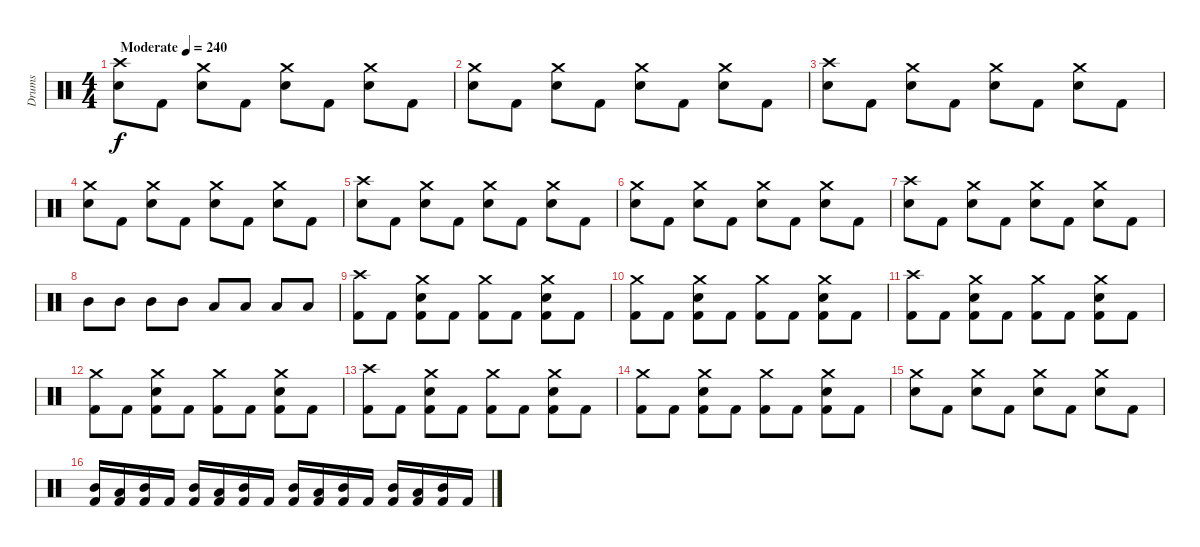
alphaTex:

\track ("Drums" "Drums") {instrument percussion}
\staff {score}
\articulation defaults
\ts (4 4)
\tempo (240 "Moderate")
\clef neutral
\ks c
("Electric Snare (hit)" "Crash high (hit)").8{dy f} "Kick (hit) 2".8 ("Electric Snare (hit)" "Crash medium (hit)").8 "Kick (hit) 2".8 ("Electric Snare (hit)" "Crash medium (hit)").8 "Kick (hit) 2".8 ("Electric Snare (hit)" "Crash medium (hit)").8 "Kick (hit) 2".8 |
("Electric Snare (hit)" "Crash medium (hit)").8 "Kick (hit) 2".8 ("Electric Snare (hit)" "Crash medium (hit)").8 "Kick (hit) 2".8 ("Electric Snare (hit)" "Crash medium (hit)").8 "Kick (hit) 2".8 ("Electric Snare (hit)" "Crash medium (hit)").8 "Kick (hit) 2".8 |
("Electric Snare (hit)" "Crash high (hit)").8 "Kick (hit) 2".8 ("Electric Snare (hit)" "Crash medium (hit)").8 "Kick (hit) 2".8 ("Electric Snare (hit)" "Crash medium (hit)").8 "Kick (hit) 2".8 ("Electric Snare (hit)" "Crash medium (hit)").8 "Kick (hit) 2".8 |
("Electric Snare (hit)" "Crash medium (hit)").8 "Kick (hit) 2".8 ("Electric Snare (hit)" "Crash medium (hit)").8 "Kick (hit) 2".8 ("Electric Snare (hit)" "Crash medium (hit)").8 "Kick (hit) 2".8 ("Electric Snare (hit)" "Crash medium (hit)").8 "Kick (hit) 2".8 |
("Electric Snare (hit)" "Crash high (hit)").8 "Kick (hit) 2".8 ("Electric Snare (hit)" "Crash medium (hit)").8 "Kick (hit) 2".8 ("Electric Snare (hit)" "Crash medium (hit)").8 "Kick (hit) 2".8 ("Electric Snare (hit)" "Crash medium (hit)").8 "Kick (hit) 2".8 |
("Electric Snare (hit)" "Crash medium (hit)").8 "Kick (hit) 2".8 ("Electric Snare (hit)" "Crash medium (hit)").8 "Kick (hit) 2".8 ("Electric Snare (hit)" "Crash medium (hit)").8 "Kick (hit) 2".8 ("Electric Snare (hit)" "Crash medium (hit)").8 "Kick (hit) 2".8 |
("Electric Snare (hit)" "Crash high (hit)").8 "Kick (hit) 2".8 ("Electric Snare (hit)" "Crash medium (hit)").8 "Kick (hit) 2".8 ("Electric Snare (hit)" "Crash medium (hit)").8 "Kick (hit) 2".8 ("Electric Snare (hit)" "Crash medium (hit)").8 "Kick (hit) 2".8 |
"Mid Tom (hit)".8 "Mid Tom (hit)".8 "Mid Tom (hit)".8 "Mid Tom (hit)".8 "Low Tom (hit)".8 "Low Tom (hit)".8 "Low Tom (hit)".8 "Low Tom (hit)".8 |
("Kick (hit) 2" "Crash high (hit)").8 "Kick (hit) 2".8 ("Kick (hit) 2" "Electric Snare (hit)" "Crash medium (hit)").8 "Kick (hit) 2".8 ("Kick (hit) 2" "Crash medium (hit)").8 "Kick (hit) 2".8 ("Kick (hit) 2" "Electric Snare (hit)" "Crash medium (hit)").8 "Kick (hit) 2".8 |
("Kick (hit) 2" "Crash medium (hit)").8 "Kick (hit) 2".8 ("Kick (hit) 2" "Electric Snare (hit)" "Crash medium (hit)").8 "Kick (hit) 2".8 ("Kick (hit) 2" "Crash medium (hit)").8 "Kick (hit) 2".8 ("Kick (hit) 2" "Electric Snare (hit)" "Crash medium (hit)").8 "Kick (hit) 2".8 |
("Kick (hit) 2" "Crash high (hit)").8 "Kick (hit) 2".8 ("Kick (hit) 2" "Electric Snare (hit)" "Crash medium (hit)").8 "Kick (hit) 2".8 ("Kick (hit) 2" "Crash medium (hit)").8 "Kick (hit) 2".8 ("Kick (hit) 2" "Electric Snare (hit)" "Crash medium (hit)").8 "Kick (hit) 2".8 |
("Kick (hit) 2" "Crash medium (hit)").8 "Kick (hit) 2".8 ("Kick (hit) 2" "Electric Snare (hit)" "Crash medium (hit)").8 "Kick (hit) 2".8 ("Kick (hit) 2" "Crash medium (hit)").8 "Kick (hit) 2".8 ("Kick (hit) 2" "Electric Snare (hit)" "Crash medium (hit)").8 "Kick (hit) 2".8 |
("Kick (hit) 2" "Crash high (hit)").8 "Kick (hit) 2".8 ("Kick (hit) 2" "Electric Snare (hit)" "Crash medium (hit)").8 "Kick (hit) 2".8 ("Kick (hit) 2" "Crash medium (hit)").8 "Kick (hit) 2".8 ("Kick (hit) 2" "Electric Snare (hit)" "Crash medium (hit)").8 "Kick (hit) 2".8 |
("Kick (hit) 2" "Crash medium (hit)").8 "Kick (hit) 2".8 ("Kick (hit) 2" "Electric Snare (hit)" "Crash medium (hit)").8 "Kick (hit) 2".8 ("Kick (hit) 2" "Crash medium (hit)").8 "Kick (hit) 2".8 ("Kick (hit) 2" "Electric Snare (hit)" "Crash medium (hit)").8 "Kick (hit) 2".8 |
("Electric Snare (hit)" "Crash medium (hit)").8 "Kick (hit) 2".8 ("Electric Snare (hit)" "Crash medium (hit)").8 "Kick (hit) 2".8 ("Electric Snare (hit)" "Crash medium (hit)").8 "Kick (hit) 2".8 ("Electric Snare (hit)" "Crash medium (hit)").8 "Kick (hit) 2".8 |
("Kick (hit) 2" "Mid Tom (hit)").16 ("Kick (hit) 2" "Low Tom (hit)").16 ("Kick (hit) 2" "Mid Tom (hit)").16 "Kick (hit) 2".16 ("Kick (hit) 2" "Mid Tom (hit)").16 ("Kick (hit) 2" "Low Tom (hit)").16 ("Kick (hit) 2" "Mid Tom (hit)").16 "Kick (hit) 2".16 ("Kick (hit) 2" "Mid Tom (hit)").16 ("Kick (hit) 2" "Low Tom (hit)").16 ("Kick (hit) 2" "Mid Tom (hit)").16 "Kick (hit) 2".16 ("Kick (hit) 2" "Mid Tom (hit)").16 ("Kick (hit) 2" "Low Tom (hit)").16 ("Kick (hit) 2" "Mid Tom (hit)").16 "Kick (hit) 2".16
